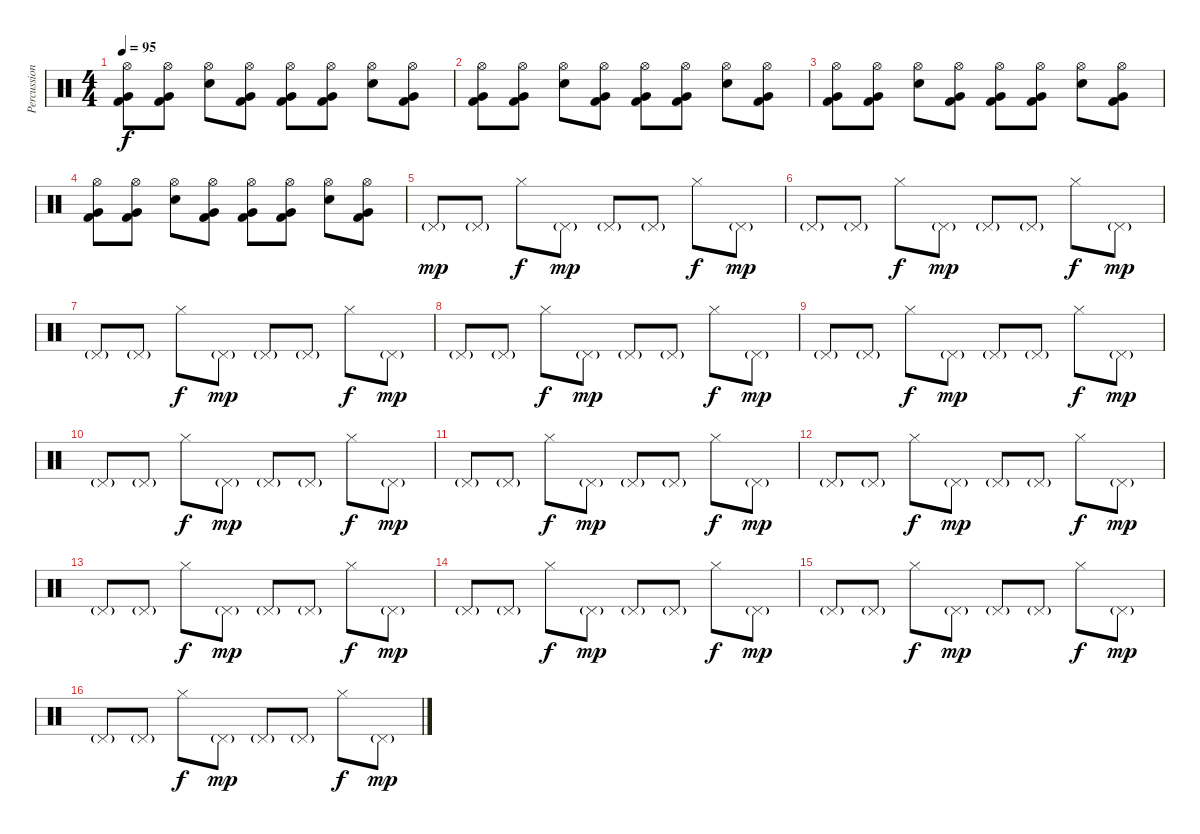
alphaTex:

\track ("Percussions" "Percussion") {instrument percussion}
\staff {score}
\articulation defaults
\ts (4 4)
\tempo 95
\clef neutral
\ks c
("Hi-Hat (open)" "Very Low Tom (hit)" "Kick (hit) 2").8{dy f} ("Hi-Hat (open)" "Very Low Tom (hit)" "Kick (hit) 2").8 ("Hi-Hat (open)" "Electric Snare (hit)").8 ("Hi-Hat (open)" "Very Low Tom (hit)" "Kick (hit) 2").8 ("Hi-Hat (open)" "Very Low Tom (hit)" "Kick (hit) 2").8 ("Hi-Hat (open)" "Very Low Tom (hit)" "Kick (hit) 2").8 ("Hi-Hat (open)" "Electric Snare (hit)").8 ("Hi-Hat (open)" "Very Low Tom (hit)" "Kick (hit) 2").8 |
("Hi-Hat (open)" "Very Low Tom (hit)" "Kick (hit) 2").8 ("Hi-Hat (open)" "Very Low Tom (hit)" "Kick (hit) 2").8 ("Hi-Hat (open)" "Electric Snare (hit)").8 ("Hi-Hat (open)" "Very Low Tom (hit)" "Kick (hit) 2").8 ("Hi-Hat (open)" "Very Low Tom (hit)" "Kick (hit) 2").8 ("Hi-Hat (open)" "Very Low Tom (hit)" "Kick (hit) 2").8 ("Hi-Hat (open)" "Electric Snare (hit)").8 ("Hi-Hat (open)" "Very Low Tom (hit)" "Kick (hit) 2").8 |
("Hi-Hat (open)" "Very Low Tom (hit)" "Kick (hit) 2").8 ("Hi-Hat (open)" "Very Low Tom (hit)" "Kick (hit) 2").8 ("Hi-Hat (open)" "Electric Snare (hit)").8 ("Hi-Hat (open)" "Very Low Tom (hit)" "Kick (hit) 2").8 ("Hi-Hat (open)" "Very Low Tom (hit)" "Kick (hit) 2").8 ("Hi-Hat (open)" "Very Low Tom (hit)" "Kick (hit) 2").8 ("Hi-Hat (open)" "Electric Snare (hit)").8 ("Hi-Hat (open)" "Very Low Tom (hit)" "Kick (hit) 2").8 |
("Hi-Hat (open)" "Very Low Tom (hit)" "Kick (hit) 2").8 ("Hi-Hat (open)" "Very Low Tom (hit)" "Kick (hit) 2").8 ("Hi-Hat (open)" "Electric Snare (hit)").8 ("Hi-Hat (open)" "Very Low Tom (hit)" "Kick (hit) 2").8 ("Hi-Hat (open)" "Very Low Tom (hit)" "Kick (hit) 2").8 ("Hi-Hat (open)" "Very Low Tom (hit)" "Kick (hit) 2").8 ("Hi-Hat (open)" "Electric Snare (hit)").8 ("Hi-Hat (open)" "Very Low Tom (hit)" "Kick (hit) 2").8 |
"Pedal Hi-Hat (hit)"{g}.8{dy mp} "Pedal Hi-Hat (hit)"{g}.8 "Hi-Hat (closed)".8{dy f} "Pedal Hi-Hat (hit)"{g}.8{dy mp} "Pedal Hi-Hat (hit)"{g}.8 "Pedal Hi-Hat (hit)"{g}.8 "Hi-Hat (closed)".8{dy f} "Pedal Hi-Hat (hit)"{g}.8{dy mp} |
"Pedal Hi-Hat (hit)"{g}.8 "Pedal Hi-Hat (hit)"{g}.8 "Hi-Hat (closed)".8{dy f} "Pedal Hi-Hat (hit)"{g}.8{dy mp} "Pedal Hi-Hat (hit)"{g}.8 "Pedal Hi-Hat (hit)"{g}.8 "Hi-Hat (closed)".8{dy f} "Pedal Hi-Hat (hit)"{g}.8{dy mp} |
"Pedal Hi-Hat (hit)"{g}.8 "Pedal Hi-Hat (hit)"{g}.8 "Hi-Hat (closed)".8{dy f} "Pedal Hi-Hat (hit)"{g}.8{dy mp} "Pedal Hi-Hat (hit)"{g}.8 "Pedal Hi-Hat (hit)"{g}.8 "Hi-Hat (closed)".8{dy f} "Pedal Hi-Hat (hit)"{g}.8{dy mp} |
"Pedal Hi-Hat (hit)"{g}.8 "Pedal Hi-Hat (hit)"{g}.8 "Hi-Hat (closed)".8{dy f} "Pedal Hi-Hat (hit)"{g}.8{dy mp} "Pedal Hi-Hat (hit)"{g}.8 "Pedal Hi-Hat (hit)"{g}.8 "Hi-Hat (closed)".8{dy f} "Pedal Hi-Hat (hit)"{g}.8{dy mp} |
"Pedal Hi-Hat (hit)"{g}.8 "Pedal Hi-Hat (hit)"{g}.8 "Hi-Hat (closed)".8{dy f} "Pedal Hi-Hat (hit)"{g}.8{dy mp} "Pedal Hi-Hat (hit)"{g}.8 "Pedal Hi-Hat (hit)"{g}.8 "Hi-Hat (closed)".8{dy f} "Pedal Hi-Hat (hit)"{g}.8{dy mp} |
"Pedal Hi-Hat (hit)"{g}.8 "Pedal Hi-Hat (hit)"{g}.8 "Hi-Hat (closed)".8{dy f} "Pedal Hi-Hat (hit)"{g}.8{dy mp} "Pedal Hi-Hat (hit)"{g}.8 "Pedal Hi-Hat (hit)"{g}.8 "Hi-Hat (closed)".8{dy f} "Pedal Hi-Hat (hit)"{g}.8{dy mp} |
"Pedal Hi-Hat (hit)"{g}.8 "Pedal Hi-Hat (hit)"{g}.8 "Hi-Hat (closed)".8{dy f} "Pedal Hi-Hat (hit)"{g}.8{dy mp} "Pedal Hi-Hat (hit)"{g}.8 "Pedal Hi-Hat (hit)"{g}.8 "Hi-Hat (closed)".8{dy f} "Pedal Hi-Hat (hit)"{g}.8{dy mp} |
"Pedal Hi-Hat (hit)"{g}.8 "Pedal Hi-Hat (hit)"{g}.8 "Hi-Hat (closed)".8{dy f} "Pedal Hi-Hat (hit)"{g}.8{dy mp} "Pedal Hi-Hat (hit)"{g}.8 "Pedal Hi-Hat (hit)"{g}.8 "Hi-Hat (closed)".8{dy f} "Pedal Hi-Hat (hit)"{g}.8{dy mp} |
"Pedal Hi-Hat (hit)"{g}.8 "Pedal Hi-Hat (hit)"{g}.8 "Hi-Hat (closed)".8{dy f} "Pedal Hi-Hat (hit)"{g}.8{dy mp} "Pedal Hi-Hat (hit)"{g}.8 "Pedal Hi-Hat (hit)"{g}.8 "Hi-Hat (closed)".8{dy f} "Pedal Hi-Hat (hit)"{g}.8{dy mp} |
"Pedal Hi-Hat (hit)"{g}.8 "Pedal Hi-Hat (hit)"{g}.8 "Hi-Hat (closed)".8{dy f} "Pedal Hi-Hat (hit)"{g}.8{dy mp} "Pedal Hi-Hat (hit)"{g}.8 "Pedal Hi-Hat (hit)"{g}.8 "Hi-Hat (closed)".8{dy f} "Pedal Hi-Hat (hit)"{g}.8{dy mp} |
"Pedal Hi-Hat (hit)"{g}.8 "Pedal Hi-Hat (hit)"{g}.8 "Hi-Hat (closed)".8{dy f} "Pedal Hi-Hat (hit)"{g}.8{dy mp} "Pedal Hi-Hat (hit)"{g}.8 "Pedal Hi-Hat (hit)"{g}.8 "Hi-Hat (closed)".8{dy f} "Pedal Hi-Hat (hit)"{g}.8{dy mp} |
"Pedal Hi-Hat (hit)"{g}.8 "Pedal Hi-Hat (hit)"{g}.8 "Hi-Hat (closed)".8{dy f} "Pedal Hi-Hat (hit)"{g}.8{dy mp} "Pedal Hi-Hat (hit)"{g}.8 "Pedal Hi-Hat (hit)"{g}.8 "Hi-Hat (closed)".8{dy f} "Pedal Hi-Hat (hit)"{g}.8{dy mp}
